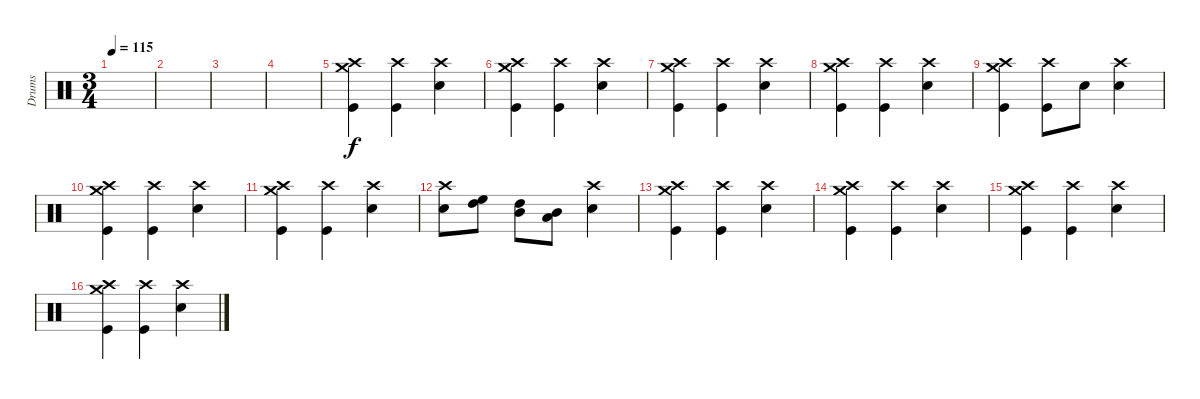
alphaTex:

\track ("Drums" "Drums") {instrument percussion}
\staff {score}
\articulation defaults
\ts (3 4)
\tempo 115
\clef neutral
\ks c
|
|
|
|
("Crash high (hit)" "Crash medium (hit)" "Kick (hit)").4 ("Crash high (hit)" "Kick (hit)").4 ("Crash high (hit)" "Snare (hit) 2").4 |
("Crash high (hit)" "Crash medium (hit)" "Kick (hit)").4 ("Crash high (hit)" "Kick (hit)").4 ("Crash high (hit)" "Snare (hit) 2").4 |
("Crash high (hit)" "Crash medium (hit)" "Kick (hit)").4 ("Crash high (hit)" "Kick (hit)").4 ("Crash high (hit)" "Snare (hit) 2").4 |
("Crash high (hit)" "Crash medium (hit)" "Kick (hit)").4 ("Crash high (hit)" "Kick (hit)").4 ("Crash high (hit)" "Snare (hit) 2").4 |
("Crash high (hit)" "Crash medium (hit)" "Kick (hit)").4 ("Crash high (hit)" "Kick (hit)").8 "Snare (hit) 2".8 ("Crash high (hit)" "Snare (hit) 2").4 |
("Crash high (hit)" "Crash medium (hit)" "Kick (hit)").4 ("Crash high (hit)" "Kick (hit)").4 ("Crash high (hit)" "Snare (hit) 2").4 |
("Crash high (hit)" "Crash medium (hit)" "Kick (hit)").4 ("Crash high (hit)" "Kick (hit)").4 ("Crash high (hit)" "Snare (hit) 2").4 |
("Crash high (hit)" "Snare (hit) 2").8 ("High Tom (hit)" "High Floor Tom (hit)").8 ("High Tom (hit)" "Mid Tom (hit)").8 ("Mid Tom (hit)" "Low Tom (hit)").8 ("Crash high (hit)" "Snare (hit) 2").4 |
("Crash high (hit)" "Crash medium (hit)" "Kick (hit)").4 ("Crash high (hit)" "Kick (hit)").4 ("Crash high (hit)" "Snare (hit) 2").4 |
("Crash high (hit)" "Crash medium (hit)" "Kick (hit)").4 ("Crash high (hit)" "Kick (hit)").4 ("Crash high (hit)" "Snare (hit) 2").4 |
("Crash high (hit)" "Crash medium (hit)" "Kick (hit)").4 ("Crash high (hit)" "Kick (hit)").4 ("Crash high (hit)" "Snare (hit) 2").4 |
("Crash high (hit)" "Crash medium (hit)" "Kick (hit)").4 ("Crash high (hit)" "Kick (hit)").4 ("Crash high (hit)" "Snare (hit) 2").4
